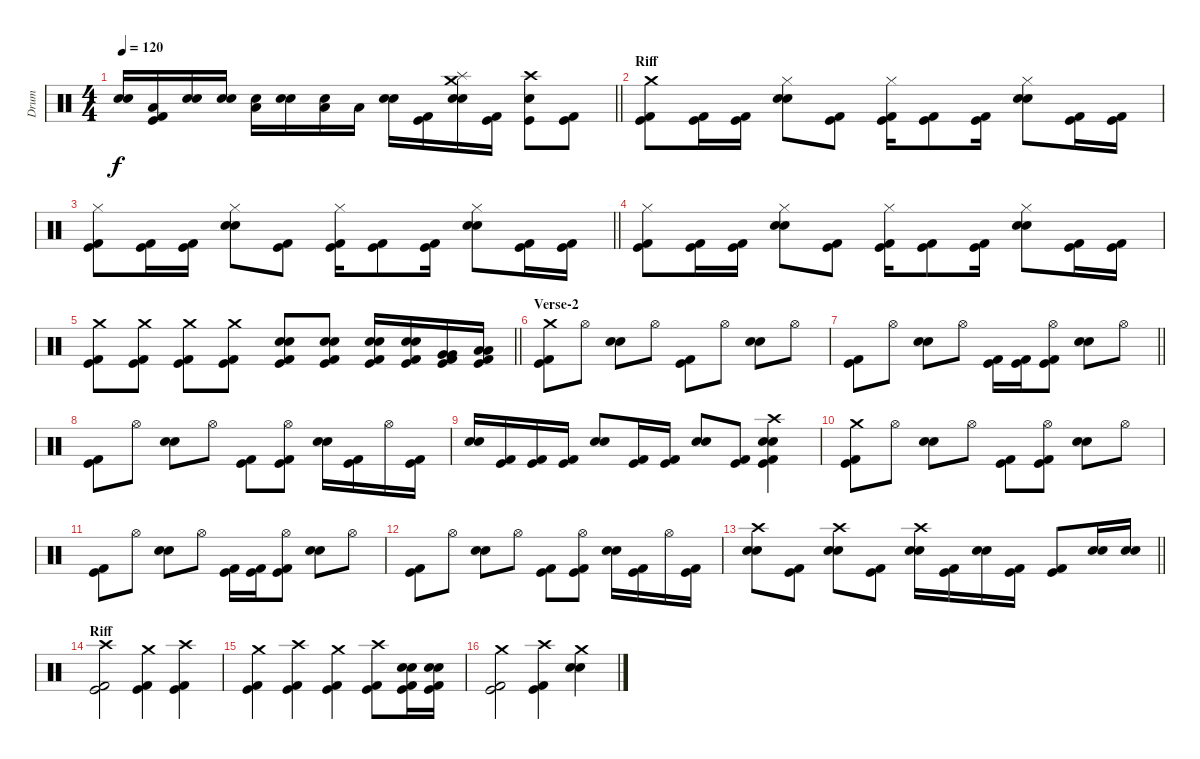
\track ("Drum" "Drum") {instrument percussion}
\staff
\articulation defaults
\ts (4 4)
\tempo 120
\clef neutral
\barLineRight lightlight
\ks c
("Electric Snare (hit)" "Snare (hit) 2").16{dy f} ("Low Floor Tom (hit)" "Kick (hit)" "Kick (hit) 2").16 ("Electric Snare (hit)" "Snare (hit) 2").16 ("Electric Snare (hit)" "Snare (hit) 2").16 ("Electric Snare (hit)" "Low Tom (hit)").16 ("Electric Snare (hit)" "Snare (hit) 2").16 ("Electric Snare (hit)" "Low Tom (hit)").16 "Low Tom (hit)".16 ("Electric Snare (hit)" "Snare (hit) 2").16 ("Kick (hit)" "Kick (hit) 2").16 ("Crash medium (hit)" "Snare (hit) 2" "Electric Snare (hit)" "Splash (hit)").16 ("Kick (hit)" "Kick (hit) 2").16 ("Crash high (hit)" "Electric Snare (hit)" "Kick (hit)").8 ("Kick (hit) 2" "Kick (hit)").8 |
\section ("" "Riff")
("Crash medium (hit)" "Kick (hit) 2" "Kick (hit)").8 ("Kick (hit) 2" "Kick (hit)").16 ("Kick (hit) 2" "Kick (hit)").16 ("Hi-Hat (closed)" "Snare (hit) 2" "Electric Snare (hit)").8 ("Kick (hit) 2" "Kick (hit)").8 ("Hi-Hat (closed)" "Kick (hit) 2" "Kick (hit)").16 ("Kick (hit) 2" "Kick (hit)").8 ("Kick (hit) 2" "Kick (hit)").16 ("Hi-Hat (closed)" "Snare (hit) 2" "Electric Snare (hit)").8 ("Kick (hit) 2" "Kick (hit)").16 ("Kick (hit) 2" "Kick (hit)").16 |
\barLineRight lightlight
("Hi-Hat (closed)" "Kick (hit) 2" "Kick (hit)").8 ("Kick (hit) 2" "Kick (hit)").16 ("Kick (hit) 2" "Kick (hit)").16 ("Hi-Hat (closed)" "Snare (hit) 2" "Electric Snare (hit)").8 ("Kick (hit) 2" "Kick (hit)").8 ("Hi-Hat (closed)" "Kick (hit) 2" "Kick (hit)").16 ("Kick (hit) 2" "Kick (hit)").8 ("Kick (hit) 2" "Kick (hit)").16 ("Hi-Hat (closed)" "Snare (hit) 2" "Electric Snare (hit)").8 ("Kick (hit) 2" "Kick (hit)").16 ("Kick (hit) 2" "Kick (hit)").16 |
("Hi-Hat (closed)" "Kick (hit) 2" "Kick (hit)").8 ("Kick (hit) 2" "Kick (hit)").16 ("Kick (hit) 2" "Kick (hit)").16 ("Hi-Hat (closed)" "Snare (hit) 2" "Electric Snare (hit)").8 ("Kick (hit) 2" "Kick (hit)").8 ("Hi-Hat (closed)" "Kick (hit) 2" "Kick (hit)").16 ("Kick (hit) 2" "Kick (hit)").8 ("Kick (hit) 2" "Kick (hit)").16 ("Hi-Hat (closed)" "Snare (hit) 2" "Electric Snare (hit)").8 ("Kick (hit) 2" "Kick (hit)").16 ("Kick (hit) 2" "Kick (hit)").16 |
\barLineRight lightlight
("Crash medium (hit)" "Kick (hit)" "Kick (hit) 2").8 ("Crash medium (hit)" "Kick (hit)" "Kick (hit) 2").8 ("Crash medium (hit)" "Kick (hit)" "Kick (hit) 2").8 ("Crash medium (hit)" "Kick (hit)" "Kick (hit) 2").8 ("Electric Snare (hit)" "Snare (hit) 2" "Kick (hit)" "Kick (hit) 2").8 ("Electric Snare (hit)" "Snare (hit) 2" "Kick (hit)" "Kick (hit) 2").8 ("Electric Snare (hit)" "Snare (hit) 2" "Kick (hit)" "Kick (hit) 2").16 ("Electric Snare (hit)" "Snare (hit) 2" "Kick (hit)" "Kick (hit) 2").16 ("Very Low Tom (hit)" "Very Low Tom (hit)" "Kick (hit)" "Kick (hit) 2").16 ("Low Floor Tom (hit)" "Low Floor Tom (hit)" "Kick (hit)" "Kick (hit) 2").16 |
\section ("" "Verse-2")
("Crash medium (hit)" "Kick (hit) 2" "Kick (hit)").8 "Hi-Hat (open)".8 ("Electric Snare (hit)" "Snare (hit) 2").8 "Hi-Hat (open)".8 ("Kick (hit) 2" "Kick (hit)").8 "Hi-Hat (open)".8 ("Electric Snare (hit)" "Snare (hit) 2").8 "Hi-Hat (open)".8 |
\barLineRight lightlight
("Kick (hit) 2" "Kick (hit)").8 "Hi-Hat (open)".8 ("Electric Snare (hit)" "Snare (hit) 2").8 "Hi-Hat (open)".8 ("Kick (hit) 2" "Kick (hit)").16 ("Kick (hit) 2" "Kick (hit)").16 ("Hi-Hat (open)" "Kick (hit) 2" "Kick (hit)").8 ("Electric Snare (hit)" "Snare (hit) 2").8 "Hi-Hat (open)".8 |
("Kick (hit) 2" "Kick (hit)").8 "Hi-Hat (open)".8 ("Electric Snare (hit)" "Snare (hit) 2").8 "Hi-Hat (open)".8 ("Kick (hit) 2" "Kick (hit)").8 ("Hi-Hat (open)" "Kick (hit) 2" "Kick (hit)").8 ("Electric Snare (hit)" "Snare (hit) 2").16 ("Kick (hit) 2" "Kick (hit)").16 "Hi-Hat (open)".16 ("Kick (hit) 2" "Kick (hit)").16 |
("Snare (hit) 2" "Electric Snare (hit)").16 ("Kick (hit) 2" "Kick (hit)").16 ("Kick (hit) 2" "Kick (hit)").16 ("Kick (hit) 2" "Kick (hit)").16 ("Snare (hit) 2" "Electric Snare (hit)").8 ("Kick (hit) 2" "Kick (hit)").16 ("Kick (hit) 2" "Kick (hit)").16 ("Snare (hit) 2" "Electric Snare (hit)").8 ("Kick (hit) 2" "Kick (hit)").8 ("Crash high (hit)" "Snare (hit) 2" "Electric Snare (hit)" "Kick (hit) 2" "Kick (hit)").4 |
("Crash medium (hit)" "Kick (hit) 2" "Kick (hit)").8 "Hi-Hat (open)".8 ("Electric Snare (hit)" "Snare (hit) 2").8 "Hi-Hat (open)".8 ("Kick (hit) 2" "Kick (hit)").8 ("Hi-Hat (open)" "Kick (hit) 2" "Kick (hit)").8 ("Electric Snare (hit)" "Snare (hit) 2").8 "Hi-Hat (open)".8 |
("Kick (hit) 2" "Kick (hit)").8 "Hi-Hat (open)".8 ("Electric Snare (hit)" "Snare (hit) 2").8 "Hi-Hat (open)".8 ("Kick (hit) 2" "Kick (hit)").16 ("Kick (hit) 2" "Kick (hit)").16 ("Hi-Hat (open)" "Kick (hit) 2" "Kick (hit)").8 ("Electric Snare (hit)" "Snare (hit) 2").8 "Hi-Hat (open)".8 |
("Kick (hit) 2" "Kick (hit)").8 "Hi-Hat (open)".8 ("Electric Snare (hit)" "Snare (hit) 2").8 "Hi-Hat (open)".8 ("Kick (hit) 2" "Kick (hit)").8 ("Hi-Hat (open)" "Kick (hit) 2" "Kick (hit)").8 ("Electric Snare (hit)" "Snare (hit) 2").16 ("Kick (hit) 2" "Kick (hit)").16 "Hi-Hat (open)".16 ("Kick (hit) 2" "Kick (hit)").16 |
\barLineRight lightlight
("Crash high (hit)" "Snare (hit) 2" "Electric Snare (hit)").8 ("Kick (hit) 2" "Kick (hit)").8 ("Crash high (hit)" "Snare (hit) 2" "Electric Snare (hit)").8 ("Kick (hit) 2" "Kick (hit)").8 ("Crash high (hit)" "Snare (hit) 2" "Electric Snare (hit)").16 ("Kick (hit) 2" "Kick (hit)").16 ("Snare (hit) 2" "Electric Snare (hit)").16 ("Kick (hit) 2" "Kick (hit)").16 ("Kick (hit) 2" "Kick (hit)").8 ("Snare (hit) 2" "Electric Snare (hit)").16 ("Snare (hit) 2" "Electric Snare (hit)").16 |
\section ("" "Riff")
("Crash high (hit)" "Kick (hit)" "Kick (hit) 2").2 ("Crash medium (hit)" "Kick (hit)" "Kick (hit) 2").4 ("Crash high (hit)" "Kick (hit)" "Kick (hit) 2").4 |
("Crash medium (hit)" "Kick (hit)" "Kick (hit) 2").4 ("Crash high (hit)" "Kick (hit)" "Kick (hit) 2").4 ("Crash medium (hit)" "Kick (hit)" "Kick (hit) 2").4 ("Crash high (hit)" "Kick (hit)" "Kick (hit) 2").8 ("Snare (hit) 2" "Electric Snare (hit)" "Kick (hit)" "Kick (hit) 2").16 ("Snare (hit) 2" "Electric Snare (hit)" "Kick (hit)" "Kick (hit) 2").16 |
("Crash medium (hit)" "Kick (hit)" "Kick (hit) 2").2 ("Crash high (hit)" "Kick (hit)" "Kick (hit) 2").4 ("Crash medium (hit)" "Snare (hit) 2" "Electric Snare (hit)").4
